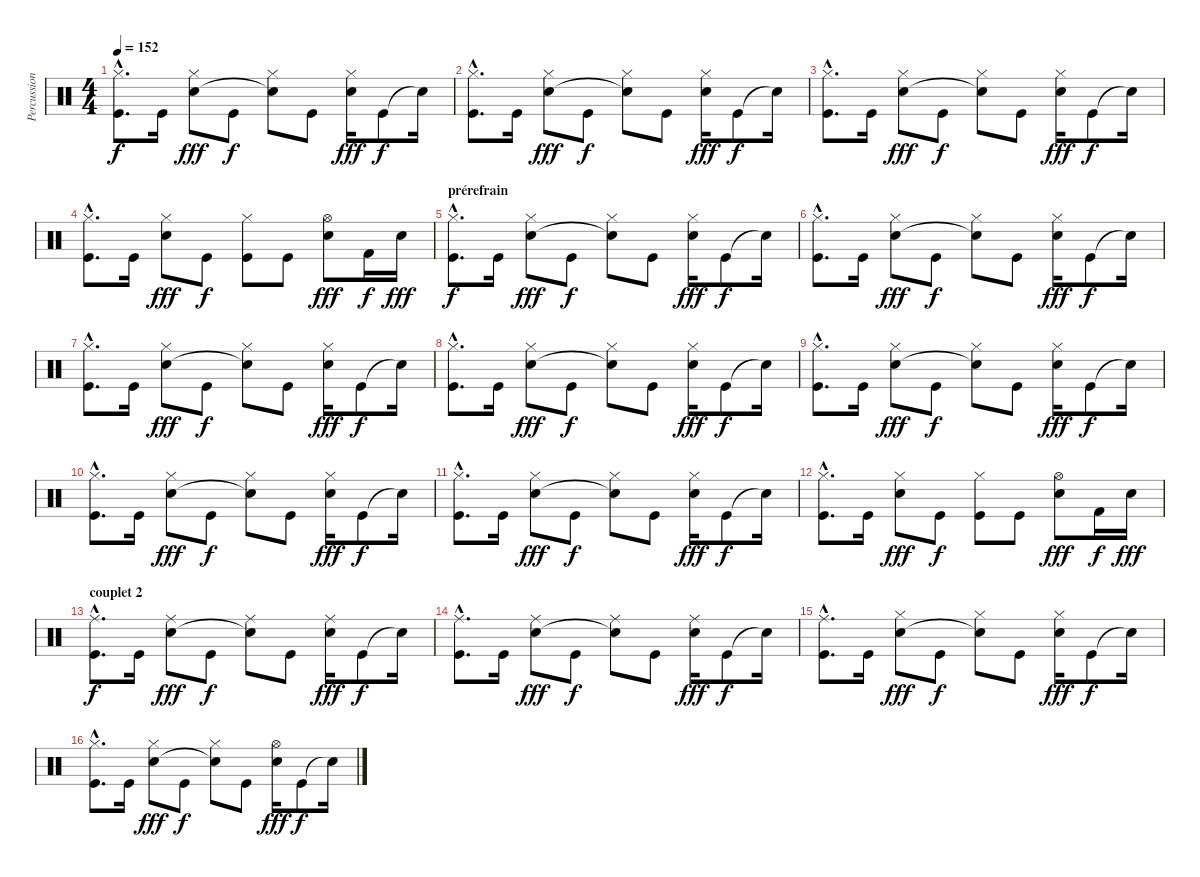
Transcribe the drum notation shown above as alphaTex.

\track ("Percussions" "Percussion") {instrument percussion}
\staff {score}
\articulation defaults
\ts (4 4)
\tempo 152
\clef neutral
\ks c
("Hi-Hat (closed)"{hac} "Kick (hit)"{hac}).8{d dy f} "Kick (hit)".16 ("Hi-Hat (closed)" "Snare (hit) 2").8{dy fff} "Kick (hit)".8{dy f} ("Hi-Hat (closed)" "Snare (hit)"{t}).8 "Kick (hit)".8 ("Hi-Hat (closed)" "Snare (hit) 2").16{dy fff} "Kick (hit)".8{dy f} "Snare (hit)"{t}.16 |
("Hi-Hat (closed)"{hac} "Kick (hit)"{hac}).8{d} "Kick (hit)".16 ("Hi-Hat (closed)" "Snare (hit) 2").8{dy fff} "Kick (hit)".8{dy f} ("Hi-Hat (closed)" "Snare (hit)"{t}).8 "Kick (hit)".8 ("Hi-Hat (closed)" "Snare (hit) 2").16{dy fff} "Kick (hit)".8{dy f} "Snare (hit)"{t}.16 |
("Hi-Hat (closed)"{hac} "Kick (hit)"{hac}).8{d} "Kick (hit)".16 ("Hi-Hat (closed)" "Snare (hit) 2").8{dy fff} "Kick (hit)".8{dy f} ("Hi-Hat (closed)" "Snare (hit)"{t}).8 "Kick (hit)".8 ("Hi-Hat (closed)" "Snare (hit) 2").16{dy fff} "Kick (hit)".8{dy f} "Snare (hit)"{t}.16 |
("Hi-Hat (closed)"{hac} "Kick (hit)"{hac}).8{d} "Kick (hit)".16 ("Hi-Hat (closed)" "Snare (hit) 2").8{dy fff} "Kick (hit)".8{dy f} ("Hi-Hat (closed)" "Kick (hit)").8 "Kick (hit)".8 ("Hi-Hat (open)" "Snare (hit) 2").8{dy fff} "Kick (hit) 2".16{dy f} "Snare (hit) 2".16{dy fff} |
\section ("" "prérefrain")
("Hi-Hat (closed)"{hac} "Kick (hit)"{hac}).8{d dy f} "Kick (hit)".16 ("Hi-Hat (closed)" "Snare (hit) 2").8{dy fff} "Kick (hit)".8{dy f} ("Hi-Hat (closed)" "Snare (hit)"{t}).8 "Kick (hit)".8 ("Hi-Hat (closed)" "Snare (hit) 2").16{dy fff} "Kick (hit)".8{dy f} "Snare (hit)"{t}.16 |
("Hi-Hat (closed)"{hac} "Kick (hit)"{hac}).8{d} "Kick (hit)".16 ("Hi-Hat (closed)" "Snare (hit) 2").8{dy fff} "Kick (hit)".8{dy f} ("Hi-Hat (closed)" "Snare (hit)"{t}).8 "Kick (hit)".8 ("Hi-Hat (closed)" "Snare (hit) 2").16{dy fff} "Kick (hit)".8{dy f} "Snare (hit)"{t}.16 |
("Hi-Hat (closed)"{hac} "Kick (hit)"{hac}).8{d} "Kick (hit)".16 ("Hi-Hat (closed)" "Snare (hit) 2").8{dy fff} "Kick (hit)".8{dy f} ("Hi-Hat (closed)" "Snare (hit)"{t}).8 "Kick (hit)".8 ("Hi-Hat (closed)" "Snare (hit) 2").16{dy fff} "Kick (hit)".8{dy f} "Snare (hit)"{t}.16 |
("Hi-Hat (closed)"{hac} "Kick (hit)"{hac}).8{d} "Kick (hit)".16 ("Hi-Hat (closed)" "Snare (hit) 2").8{dy fff} "Kick (hit)".8{dy f} ("Hi-Hat (closed)" "Snare (hit)"{t}).8 "Kick (hit)".8 ("Hi-Hat (closed)" "Snare (hit) 2").16{dy fff} "Kick (hit)".8{dy f} "Snare (hit)"{t}.16 |
("Hi-Hat (closed)"{hac} "Kick (hit)"{hac}).8{d} "Kick (hit)".16 ("Hi-Hat (closed)" "Snare (hit) 2").8{dy fff} "Kick (hit)".8{dy f} ("Hi-Hat (closed)" "Snare (hit)"{t}).8 "Kick (hit)".8 ("Hi-Hat (closed)" "Snare (hit) 2").16{dy fff} "Kick (hit)".8{dy f} "Snare (hit)"{t}.16 |
("Hi-Hat (closed)"{hac} "Kick (hit)"{hac}).8{d} "Kick (hit)".16 ("Hi-Hat (closed)" "Snare (hit) 2").8{dy fff} "Kick (hit)".8{dy f} ("Hi-Hat (closed)" "Snare (hit)"{t}).8 "Kick (hit)".8 ("Hi-Hat (closed)" "Snare (hit) 2").16{dy fff} "Kick (hit)".8{dy f} "Snare (hit)"{t}.16 |
("Hi-Hat (closed)"{hac} "Kick (hit)"{hac}).8{d} "Kick (hit)".16 ("Hi-Hat (closed)" "Snare (hit) 2").8{dy fff} "Kick (hit)".8{dy f} ("Hi-Hat (closed)" "Snare (hit)"{t}).8 "Kick (hit)".8 ("Hi-Hat (closed)" "Snare (hit) 2").16{dy fff} "Kick (hit)".8{dy f} "Snare (hit)"{t}.16 |
("Hi-Hat (closed)"{hac} "Kick (hit)"{hac}).8{d} "Kick (hit)".16 ("Hi-Hat (closed)" "Snare (hit) 2").8{dy fff} "Kick (hit)".8{dy f} ("Hi-Hat (closed)" "Kick (hit)").8 "Kick (hit)".8 ("Hi-Hat (open)" "Snare (hit) 2").8{dy fff} "Kick (hit) 2".16{dy f} "Snare (hit) 2".16{dy fff} |
\section ("" "couplet 2")
("Ride (middle)"{hac} "Kick (hit)"{hac}).8{d dy f} "Kick (hit)".16 ("Ride (middle)" "Snare (hit) 2").8{dy fff} "Kick (hit)".8{dy f} ("Ride (middle)" "Snare (hit)"{t}).8 "Kick (hit)".8 ("Ride (middle)" "Snare (hit) 2").16{dy fff} "Kick (hit)".8{dy f} "Snare (hit)"{t}.16 |
("Ride (middle)"{hac} "Kick (hit)"{hac}).8{d} "Kick (hit)".16 ("Ride (middle)" "Snare (hit) 2").8{dy fff} "Kick (hit)".8{dy f} ("Ride (middle)" "Snare (hit)"{t}).8 "Kick (hit)".8 ("Ride (middle)" "Snare (hit) 2").16{dy fff} "Kick (hit)".8{dy f} "Snare (hit)"{t}.16 |
("Ride (middle)"{hac} "Kick (hit)"{hac}).8{d} "Kick (hit)".16 ("Hi-Hat (closed)" "Snare (hit) 2").8{dy fff} "Kick (hit)".8{dy f} ("Hi-Hat (closed)" "Snare (hit)"{t}).8 "Kick (hit)".8 ("Hi-Hat (closed)" "Snare (hit) 2").16{dy fff} "Kick (hit)".8{dy f} "Snare (hit)"{t}.16 |
("Hi-Hat (closed)"{hac} "Kick (hit)"{hac}).8{d} "Kick (hit)".16 ("Hi-Hat (closed)" "Snare (hit) 2").8{dy fff} "Kick (hit)".8{dy f} ("Hi-Hat (closed)" "Snare (hit)"{t}).8 "Kick (hit)".8 ("Hi-Hat (open)" "Snare (hit) 2").16{dy fff} "Kick (hit)".8{dy f} "Snare (hit)"{t}.16
